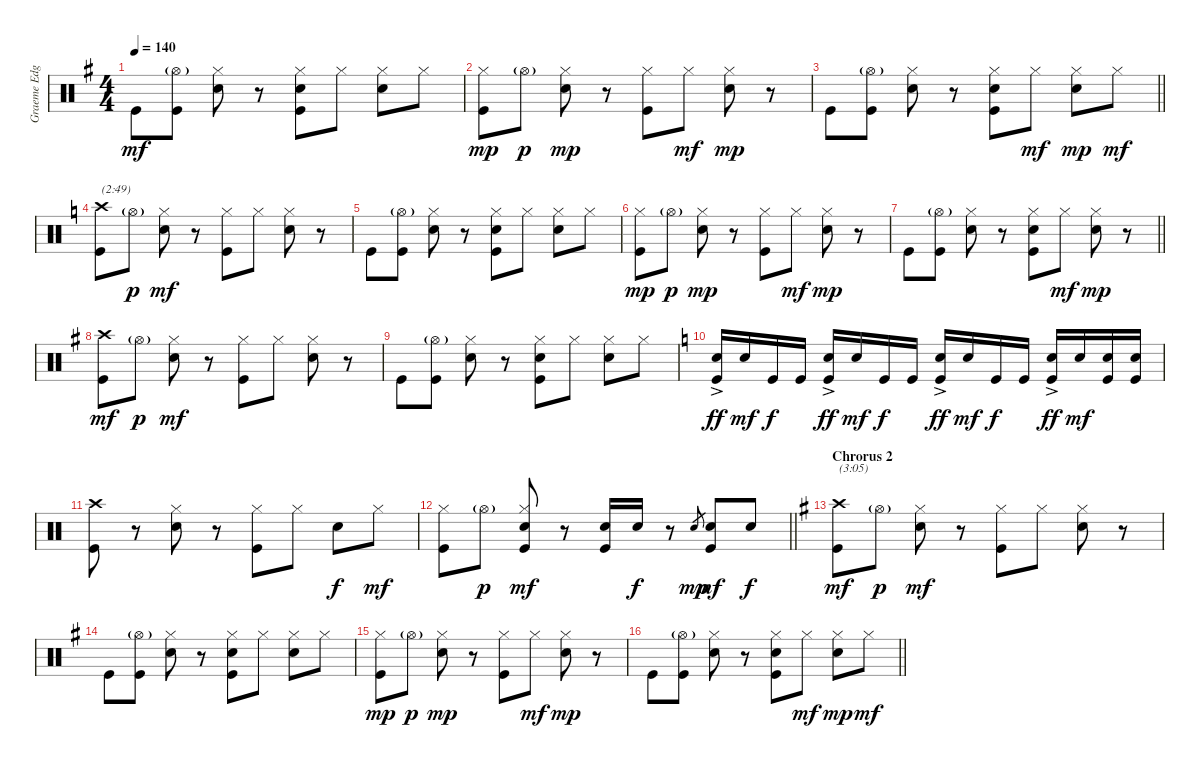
\track ("Graeme Edge" "Graeme Edg") {instrument percussion}
\staff {score}
\articulation defaults
\ts (4 4)
\tempo 140
\clef neutral
\ks g "Kick (hit)".8{dy mf}
("Hi-Hat (open)"{g} "Kick (hit)").8 ("Hi-Hat (closed)" "Snare (hit) 2").8 r.8 ("Hi-Hat (closed)" "Hand Clap (hit)" "Kick (hit)").8 "Hi-Hat (closed)".8 ("Hi-Hat (closed)" "Snare (hit) 2").8 "Hi-Hat (closed)".8 |
("Hi-Hat (closed)" "Kick (hit)").8{dy mp} "Hi-Hat (open)"{g}.8{dy p} ("Hi-Hat (closed)" "Snare (hit) 2").8{dy mp} r.8 ("Hi-Hat (closed)" "Kick (hit)").8 "Hi-Hat (closed)".8{dy mf} ("Hi-Hat (closed)" "Snare (hit) 2").8{dy mp} r.8 |
\barLineRight lightlight "Kick (hit)".8
("Hi-Hat (open)"{g} "Kick (hit)").8 ("Hi-Hat (closed)" "Snare (hit) 2").8 r.8 ("Hi-Hat (closed)" "Hand Clap (hit)" "Kick (hit)").8 "Hi-Hat (closed)".8{dy mf} ("Hi-Hat (closed)" "Snare (hit) 2").8{dy mp} "Hi-Hat (closed)".8{dy mf} |
\section ("" "")
\ks c
("Crash high (hit)" "Kick (hit)").8{txt "(2:49)"} "Hi-Hat (open)"{g}.8{dy p} ("Hi-Hat (closed)" "Snare (hit) 2").8{dy mf} r.8 ("Hi-Hat (closed)" "Kick (hit)").8 "Hi-Hat (closed)".8 ("Hi-Hat (closed)" "Snare (hit) 2").8 r.8 |
"Kick (hit)".8 ("Hi-Hat (open)"{g} "Kick (hit)").8 ("Hi-Hat (closed)" "Snare (hit) 2").8 r.8 ("Hi-Hat (closed)" "Hand Clap (hit)" "Kick (hit)").8 "Hi-Hat (closed)".8 ("Hi-Hat (closed)" "Snare (hit) 2").8 "Hi-Hat (closed)".8 |
("Hi-Hat (closed)" "Kick (hit)").8{dy mp} "Hi-Hat (open)"{g}.8{dy p} ("Hi-Hat (closed)" "Snare (hit) 2").8{dy mp} r.8 ("Hi-Hat (closed)" "Kick (hit)").8 "Hi-Hat (closed)".8{dy mf} ("Hi-Hat (closed)" "Snare (hit) 2").8{dy mp} r.8 |
\barLineRight lightlight "Kick (hit)".8
("Hi-Hat (open)"{g} "Kick (hit)").8 ("Hi-Hat (closed)" "Snare (hit) 2").8 r.8 ("Hi-Hat (closed)" "Hand Clap (hit)" "Kick (hit)").8 "Hi-Hat (closed)".8{dy mf} ("Hi-Hat (closed)" "Snare (hit) 2").8{dy mp} r.8 |
\section ("" "")
\ks g
("Crash high (hit)" "Kick (hit)").8{dy mf} "Hi-Hat (open)"{g}.8{dy p} ("Hi-Hat (closed)" "Snare (hit) 2").8{dy mf} r.8 ("Hi-Hat (closed)" "Kick (hit)").8 "Hi-Hat (closed)".8 ("Hi-Hat (closed)" "Snare (hit) 2").8 r.8 |
"Kick (hit)".8 ("Hi-Hat (open)"{g} "Kick (hit)").8 ("Hi-Hat (closed)" "Snare (hit) 2").8 r.8 ("Hi-Hat (closed)" "Hand Clap (hit)" "Kick (hit)").8 "Hi-Hat (closed)".8 ("Hi-Hat (closed)" "Snare (hit) 2").8 "Hi-Hat (closed)".8 |
\ks c
("Snare (hit) 2"{ac} "Kick (hit)").16{dy ff} "Snare (hit) 2".16{dy mf} "Kick (hit)".16{dy f} "Kick (hit)".16 ("Snare (hit) 2"{ac} "Kick (hit)").16{dy ff} "Snare (hit) 2".16{dy mf} "Kick (hit)".16{dy f} "Kick (hit)".16 ("Snare (hit) 2"{ac} "Kick (hit)").16{dy ff} "Snare (hit) 2".16{dy mf} "Kick (hit)".16{dy f} "Kick (hit)".16 ("Snare (hit) 2"{ac} "Kick (hit)").16{dy ff} "Snare (hit) 2".16{dy mf} ("Snare (hit) 2" "Kick (hit)").16 ("Snare (hit) 2" "Kick (hit)").16 |
("Crash high (hit)" "Kick (hit)").8 r.8 ("Hi-Hat (closed)" "Snare (hit) 2").8 r.8 ("Hi-Hat (closed)" "Kick (hit)").8 "Hi-Hat (closed)".8 "Snare (hit) 2".8{dy f} "Hi-Hat (closed)".8{dy mf} |
\barLineRight lightlight
("Hi-Hat (closed)" "Kick (hit)").8 "Hi-Hat (open)"{g}.8{dy p} ("Hi-Hat (closed)" "Snare (hit) 2" "Kick (hit)").8{dy mf} r.8 ("Snare (hit) 2" "Kick (hit)").16 "Snare (hit) 2".16{dy f} r.8 "Snare (hit) 2".8{gr dy mp} ("Snare (hit) 2" "Kick (hit)").8{dy mf} "Snare (hit) 2".8{dy f} |
\section ("" "Chrorus 2")
\ks g
("Crash high (hit)" "Kick (hit)").8{txt "(3:05)" dy mf} "Hi-Hat (open)"{g}.8{dy p} ("Hi-Hat (closed)" "Snare (hit) 2").8{dy mf} r.8 ("Hi-Hat (closed)" "Kick (hit)").8 "Hi-Hat (closed)".8 ("Hi-Hat (closed)" "Snare (hit) 2").8 r.8 |
"Kick (hit)".8 ("Hi-Hat (open)"{g} "Kick (hit)").8 ("Hi-Hat (closed)" "Snare (hit) 2").8 r.8 ("Hi-Hat (closed)" "Hand Clap (hit)" "Kick (hit)").8 "Hi-Hat (closed)".8 ("Hi-Hat (closed)" "Snare (hit) 2").8 "Hi-Hat (closed)".8 |
("Hi-Hat (closed)" "Kick (hit)").8{dy mp} "Hi-Hat (open)"{g}.8{dy p} ("Hi-Hat (closed)" "Snare (hit) 2").8{dy mp} r.8 ("Hi-Hat (closed)" "Kick (hit)").8 "Hi-Hat (closed)".8{dy mf} ("Hi-Hat (closed)" "Snare (hit) 2").8{dy mp} r.8 |
\barLineRight lightlight "Kick (hit)".8
("Hi-Hat (open)"{g} "Kick (hit)").8 ("Hi-Hat (closed)" "Snare (hit) 2").8 r.8 ("Hi-Hat (closed)" "Hand Clap (hit)" "Kick (hit)").8 "Hi-Hat (closed)".8{dy mf} ("Hi-Hat (closed)" "Snare (hit) 2").8{dy mp} "Hi-Hat (closed)".8{dy mf}
